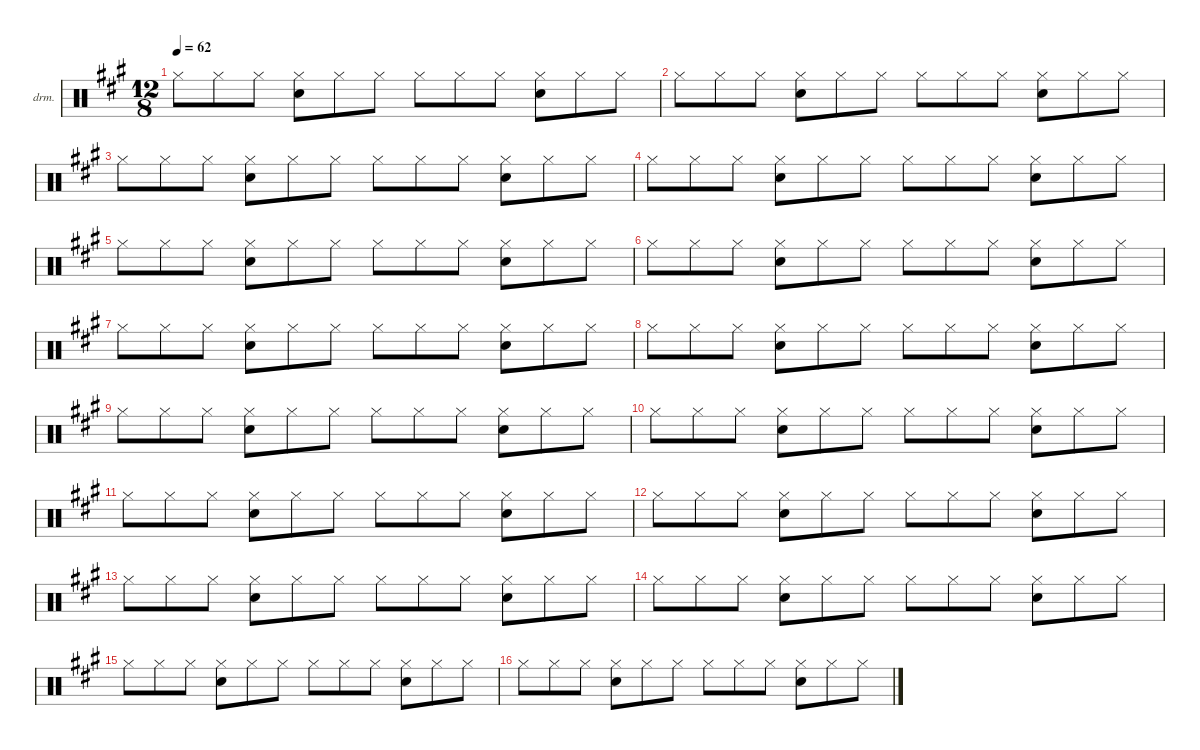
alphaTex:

\defaultSystemsLayout 4
\hideDynamics
\bracketExtendMode nobrackets
\firstSystemTrackNameOrientation horizontal
\otherSystemsTrackNameOrientation horizontal
\track ("Drums" "drm.") {instrument percussion}
\staff {score}
\articulation defaults
\ts (12 8)
\tempo 62
\clef neutral
\ks a "Hi-Hat (closed)"{acc forcenatural}.8{dy f} "Hi-Hat (closed)"{acc forcenatural}.8 "Hi-Hat (closed)"{acc forcenatural}.8
("Hi-Hat (closed)"{acc forcenatural} "Snare (hit) 2"{acc forcenatural}).8 "Hi-Hat (closed)"{acc forcenatural}.8 "Hi-Hat (closed)"{acc forcenatural}.8 "Hi-Hat (closed)"{acc forcenatural}.8 "Hi-Hat (closed)"{acc forcenatural}.8 "Hi-Hat (closed)"{acc forcenatural}.8 ("Hi-Hat (closed)"{acc forcenatural} "Snare (hit) 2"{acc forcenatural}).8 "Hi-Hat (closed)"{acc forcenatural}.8 "Hi-Hat (closed)"{acc forcenatural}.8 |
"Hi-Hat (closed)"{acc forcenatural}.8 "Hi-Hat (closed)"{acc forcenatural}.8 "Hi-Hat (closed)"{acc forcenatural}.8 ("Hi-Hat (closed)"{acc forcenatural} "Snare (hit) 2"{acc forcenatural}).8 "Hi-Hat (closed)"{acc forcenatural}.8 "Hi-Hat (closed)"{acc forcenatural}.8 "Hi-Hat (closed)"{acc forcenatural}.8 "Hi-Hat (closed)"{acc forcenatural}.8 "Hi-Hat (closed)"{acc forcenatural}.8 ("Hi-Hat (closed)"{acc forcenatural} "Snare (hit) 2"{acc forcenatural}).8 "Hi-Hat (closed)"{acc forcenatural}.8 "Hi-Hat (closed)"{acc forcenatural}.8 |
"Hi-Hat (closed)"{acc forcenatural}.8 "Hi-Hat (closed)"{acc forcenatural}.8 "Hi-Hat (closed)"{acc forcenatural}.8 ("Hi-Hat (closed)"{acc forcenatural} "Snare (hit) 2"{acc forcenatural}).8 "Hi-Hat (closed)"{acc forcenatural}.8 "Hi-Hat (closed)"{acc forcenatural}.8 "Hi-Hat (closed)"{acc forcenatural}.8 "Hi-Hat (closed)"{acc forcenatural}.8 "Hi-Hat (closed)"{acc forcenatural}.8 ("Hi-Hat (closed)"{acc forcenatural} "Snare (hit) 2"{acc forcenatural}).8 "Hi-Hat (closed)"{acc forcenatural}.8 "Hi-Hat (closed)"{acc forcenatural}.8 |
"Hi-Hat (closed)"{acc forcenatural}.8 "Hi-Hat (closed)"{acc forcenatural}.8 "Hi-Hat (closed)"{acc forcenatural}.8 ("Hi-Hat (closed)"{acc forcenatural} "Snare (hit) 2"{acc forcenatural}).8 "Hi-Hat (closed)"{acc forcenatural}.8 "Hi-Hat (closed)"{acc forcenatural}.8 "Hi-Hat (closed)"{acc forcenatural}.8 "Hi-Hat (closed)"{acc forcenatural}.8 "Hi-Hat (closed)"{acc forcenatural}.8 ("Hi-Hat (closed)"{acc forcenatural} "Snare (hit) 2"{acc forcenatural}).8 "Hi-Hat (closed)"{acc forcenatural}.8 "Hi-Hat (closed)"{acc forcenatural}.8 |
"Hi-Hat (closed)"{acc forcenatural}.8 "Hi-Hat (closed)"{acc forcenatural}.8 "Hi-Hat (closed)"{acc forcenatural}.8 ("Hi-Hat (closed)"{acc forcenatural} "Snare (hit) 2"{acc forcenatural}).8 "Hi-Hat (closed)"{acc forcenatural}.8 "Hi-Hat (closed)"{acc forcenatural}.8 "Hi-Hat (closed)"{acc forcenatural}.8 "Hi-Hat (closed)"{acc forcenatural}.8 "Hi-Hat (closed)"{acc forcenatural}.8 ("Hi-Hat (closed)"{acc forcenatural} "Snare (hit) 2"{acc forcenatural}).8 "Hi-Hat (closed)"{acc forcenatural}.8 "Hi-Hat (closed)"{acc forcenatural}.8 |
"Hi-Hat (closed)"{acc forcenatural}.8 "Hi-Hat (closed)"{acc forcenatural}.8 "Hi-Hat (closed)"{acc forcenatural}.8 ("Hi-Hat (closed)"{acc forcenatural} "Snare (hit) 2"{acc forcenatural}).8 "Hi-Hat (closed)"{acc forcenatural}.8 "Hi-Hat (closed)"{acc forcenatural}.8 "Hi-Hat (closed)"{acc forcenatural}.8 "Hi-Hat (closed)"{acc forcenatural}.8 "Hi-Hat (closed)"{acc forcenatural}.8 ("Hi-Hat (closed)"{acc forcenatural} "Snare (hit) 2"{acc forcenatural}).8 "Hi-Hat (closed)"{acc forcenatural}.8 "Hi-Hat (closed)"{acc forcenatural}.8 |
"Hi-Hat (closed)"{acc forcenatural}.8 "Hi-Hat (closed)"{acc forcenatural}.8 "Hi-Hat (closed)"{acc forcenatural}.8 ("Hi-Hat (closed)"{acc forcenatural} "Snare (hit) 2"{acc forcenatural}).8 "Hi-Hat (closed)"{acc forcenatural}.8 "Hi-Hat (closed)"{acc forcenatural}.8 "Hi-Hat (closed)"{acc forcenatural}.8 "Hi-Hat (closed)"{acc forcenatural}.8 "Hi-Hat (closed)"{acc forcenatural}.8 ("Hi-Hat (closed)"{acc forcenatural} "Snare (hit) 2"{acc forcenatural}).8 "Hi-Hat (closed)"{acc forcenatural}.8 "Hi-Hat (closed)"{acc forcenatural}.8 |
"Hi-Hat (closed)"{acc forcenatural}.8 "Hi-Hat (closed)"{acc forcenatural}.8 "Hi-Hat (closed)"{acc forcenatural}.8 ("Hi-Hat (closed)"{acc forcenatural} "Snare (hit) 2"{acc forcenatural}).8 "Hi-Hat (closed)"{acc forcenatural}.8 "Hi-Hat (closed)"{acc forcenatural}.8 "Hi-Hat (closed)"{acc forcenatural}.8 "Hi-Hat (closed)"{acc forcenatural}.8 "Hi-Hat (closed)"{acc forcenatural}.8 ("Hi-Hat (closed)"{acc forcenatural} "Snare (hit) 2"{acc forcenatural}).8 "Hi-Hat (closed)"{acc forcenatural}.8 "Hi-Hat (closed)"{acc forcenatural}.8 |
"Hi-Hat (closed)"{acc forcenatural}.8 "Hi-Hat (closed)"{acc forcenatural}.8 "Hi-Hat (closed)"{acc forcenatural}.8 ("Hi-Hat (closed)"{acc forcenatural} "Snare (hit) 2"{acc forcenatural}).8 "Hi-Hat (closed)"{acc forcenatural}.8 "Hi-Hat (closed)"{acc forcenatural}.8 "Hi-Hat (closed)"{acc forcenatural}.8 "Hi-Hat (closed)"{acc forcenatural}.8 "Hi-Hat (closed)"{acc forcenatural}.8 ("Hi-Hat (closed)"{acc forcenatural} "Snare (hit) 2"{acc forcenatural}).8 "Hi-Hat (closed)"{acc forcenatural}.8 "Hi-Hat (closed)"{acc forcenatural}.8 |
"Hi-Hat (closed)"{acc forcenatural}.8 "Hi-Hat (closed)"{acc forcenatural}.8 "Hi-Hat (closed)"{acc forcenatural}.8 ("Hi-Hat (closed)"{acc forcenatural} "Snare (hit) 2"{acc forcenatural}).8 "Hi-Hat (closed)"{acc forcenatural}.8 "Hi-Hat (closed)"{acc forcenatural}.8 "Hi-Hat (closed)"{acc forcenatural}.8 "Hi-Hat (closed)"{acc forcenatural}.8 "Hi-Hat (closed)"{acc forcenatural}.8 ("Hi-Hat (closed)"{acc forcenatural} "Snare (hit) 2"{acc forcenatural}).8 "Hi-Hat (closed)"{acc forcenatural}.8 "Hi-Hat (closed)"{acc forcenatural}.8 |
"Hi-Hat (closed)"{acc forcenatural}.8 "Hi-Hat (closed)"{acc forcenatural}.8 "Hi-Hat (closed)"{acc forcenatural}.8 ("Hi-Hat (closed)"{acc forcenatural} "Snare (hit) 2"{acc forcenatural}).8 "Hi-Hat (closed)"{acc forcenatural}.8 "Hi-Hat (closed)"{acc forcenatural}.8 "Hi-Hat (closed)"{acc forcenatural}.8 "Hi-Hat (closed)"{acc forcenatural}.8 "Hi-Hat (closed)"{acc forcenatural}.8 ("Hi-Hat (closed)"{acc forcenatural} "Snare (hit) 2"{acc forcenatural}).8 "Hi-Hat (closed)"{acc forcenatural}.8 "Hi-Hat (closed)"{acc forcenatural}.8 |
"Hi-Hat (closed)"{acc forcenatural}.8 "Hi-Hat (closed)"{acc forcenatural}.8 "Hi-Hat (closed)"{acc forcenatural}.8 ("Hi-Hat (closed)"{acc forcenatural} "Snare (hit) 2"{acc forcenatural}).8 "Hi-Hat (closed)"{acc forcenatural}.8 "Hi-Hat (closed)"{acc forcenatural}.8 "Hi-Hat (closed)"{acc forcenatural}.8 "Hi-Hat (closed)"{acc forcenatural}.8 "Hi-Hat (closed)"{acc forcenatural}.8 ("Hi-Hat (closed)"{acc forcenatural} "Snare (hit) 2"{acc forcenatural}).8 "Hi-Hat (closed)"{acc forcenatural}.8 "Hi-Hat (closed)"{acc forcenatural}.8 |
"Hi-Hat (closed)"{acc forcenatural}.8 "Hi-Hat (closed)"{acc forcenatural}.8 "Hi-Hat (closed)"{acc forcenatural}.8 ("Hi-Hat (closed)"{acc forcenatural} "Snare (hit) 2"{acc forcenatural}).8 "Hi-Hat (closed)"{acc forcenatural}.8 "Hi-Hat (closed)"{acc forcenatural}.8 "Hi-Hat (closed)"{acc forcenatural}.8 "Hi-Hat (closed)"{acc forcenatural}.8 "Hi-Hat (closed)"{acc forcenatural}.8 ("Hi-Hat (closed)"{acc forcenatural} "Snare (hit) 2"{acc forcenatural}).8 "Hi-Hat (closed)"{acc forcenatural}.8 "Hi-Hat (closed)"{acc forcenatural}.8 |
"Hi-Hat (closed)"{acc forcenatural}.8 "Hi-Hat (closed)"{acc forcenatural}.8 "Hi-Hat (closed)"{acc forcenatural}.8 ("Hi-Hat (closed)"{acc forcenatural} "Snare (hit) 2"{acc forcenatural}).8 "Hi-Hat (closed)"{acc forcenatural}.8 "Hi-Hat (closed)"{acc forcenatural}.8 "Hi-Hat (closed)"{acc forcenatural}.8 "Hi-Hat (closed)"{acc forcenatural}.8 "Hi-Hat (closed)"{acc forcenatural}.8 ("Hi-Hat (closed)"{acc forcenatural} "Snare (hit) 2"{acc forcenatural}).8 "Hi-Hat (closed)"{acc forcenatural}.8 "Hi-Hat (closed)"{acc forcenatural}.8 |
"Hi-Hat (closed)"{acc forcenatural}.8 "Hi-Hat (closed)"{acc forcenatural}.8 "Hi-Hat (closed)"{acc forcenatural}.8 ("Hi-Hat (closed)"{acc forcenatural} "Snare (hit) 2"{acc forcenatural}).8 "Hi-Hat (closed)"{acc forcenatural}.8 "Hi-Hat (closed)"{acc forcenatural}.8 "Hi-Hat (closed)"{acc forcenatural}.8 "Hi-Hat (closed)"{acc forcenatural}.8 "Hi-Hat (closed)"{acc forcenatural}.8 ("Hi-Hat (closed)"{acc forcenatural} "Snare (hit) 2"{acc forcenatural}).8 "Hi-Hat (closed)"{acc forcenatural}.8 "Hi-Hat (closed)"{acc forcenatural}.8 |
"Hi-Hat (closed)"{acc forcenatural}.8 "Hi-Hat (closed)"{acc forcenatural}.8 "Hi-Hat (closed)"{acc forcenatural}.8 ("Hi-Hat (closed)"{acc forcenatural} "Snare (hit) 2"{acc forcenatural}).8 "Hi-Hat (closed)"{acc forcenatural}.8 "Hi-Hat (closed)"{acc forcenatural}.8 "Hi-Hat (closed)"{acc forcenatural}.8 "Hi-Hat (closed)"{acc forcenatural}.8 "Hi-Hat (closed)"{acc forcenatural}.8 ("Hi-Hat (closed)"{acc forcenatural} "Snare (hit) 2"{acc forcenatural}).8 "Hi-Hat (closed)"{acc forcenatural}.8 "Hi-Hat (closed)"{acc forcenatural}.8
